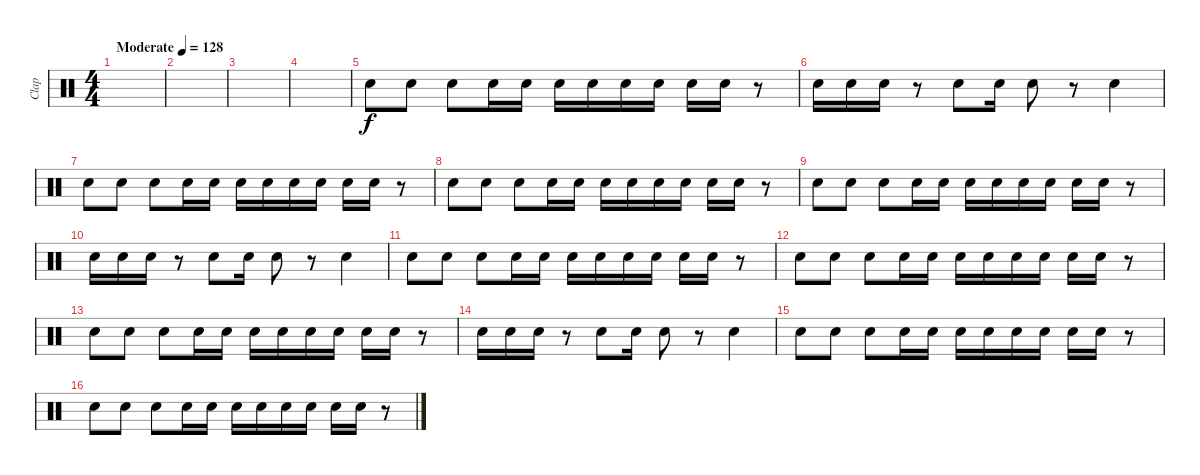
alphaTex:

\track ("Clap" "Clap") {instrument percussion}
\staff {score}
\articulation defaults
\ts (4 4)
\tempo (128 "Moderate")
\clef neutral
\ks c
|
|
|
|
"Hand Clap (hit)".8 "Hand Clap (hit)".8 "Hand Clap (hit)".8 "Hand Clap (hit)".16 "Hand Clap (hit)".16 "Hand Clap (hit)".16 "Hand Clap (hit)".16 "Hand Clap (hit)".16 "Hand Clap (hit)".16 "Hand Clap (hit)".16 "Hand Clap (hit)".16 r.8 |
"Hand Clap (hit)".16 "Hand Clap (hit)".16 "Hand Clap (hit)".16 r.8 "Hand Clap (hit)".8 "Hand Clap (hit)".16 "Hand Clap (hit)".8 r.8 "Hand Clap (hit)".4 |
"Hand Clap (hit)".8 "Hand Clap (hit)".8 "Hand Clap (hit)".8 "Hand Clap (hit)".16 "Hand Clap (hit)".16 "Hand Clap (hit)".16 "Hand Clap (hit)".16 "Hand Clap (hit)".16 "Hand Clap (hit)".16 "Hand Clap (hit)".16 "Hand Clap (hit)".16 r.8 |
"Hand Clap (hit)".8 "Hand Clap (hit)".8 "Hand Clap (hit)".8 "Hand Clap (hit)".16 "Hand Clap (hit)".16 "Hand Clap (hit)".16 "Hand Clap (hit)".16 "Hand Clap (hit)".16 "Hand Clap (hit)".16 "Hand Clap (hit)".16 "Hand Clap (hit)".16 r.8 |
"Hand Clap (hit)".8 "Hand Clap (hit)".8 "Hand Clap (hit)".8 "Hand Clap (hit)".16 "Hand Clap (hit)".16 "Hand Clap (hit)".16 "Hand Clap (hit)".16 "Hand Clap (hit)".16 "Hand Clap (hit)".16 "Hand Clap (hit)".16 "Hand Clap (hit)".16 r.8 |
"Hand Clap (hit)".16 "Hand Clap (hit)".16 "Hand Clap (hit)".16 r.8 "Hand Clap (hit)".8 "Hand Clap (hit)".16 "Hand Clap (hit)".8 r.8 "Hand Clap (hit)".4 |
"Hand Clap (hit)".8 "Hand Clap (hit)".8 "Hand Clap (hit)".8 "Hand Clap (hit)".16 "Hand Clap (hit)".16 "Hand Clap (hit)".16 "Hand Clap (hit)".16 "Hand Clap (hit)".16 "Hand Clap (hit)".16 "Hand Clap (hit)".16 "Hand Clap (hit)".16 r.8 |
"Hand Clap (hit)".8 "Hand Clap (hit)".8 "Hand Clap (hit)".8 "Hand Clap (hit)".16 "Hand Clap (hit)".16 "Hand Clap (hit)".16 "Hand Clap (hit)".16 "Hand Clap (hit)".16 "Hand Clap (hit)".16 "Hand Clap (hit)".16 "Hand Clap (hit)".16 r.8 |
"Hand Clap (hit)".8 "Hand Clap (hit)".8 "Hand Clap (hit)".8 "Hand Clap (hit)".16 "Hand Clap (hit)".16 "Hand Clap (hit)".16 "Hand Clap (hit)".16 "Hand Clap (hit)".16 "Hand Clap (hit)".16 "Hand Clap (hit)".16 "Hand Clap (hit)".16 r.8 |
"Hand Clap (hit)".16 "Hand Clap (hit)".16 "Hand Clap (hit)".16 r.8 "Hand Clap (hit)".8 "Hand Clap (hit)".16 "Hand Clap (hit)".8 r.8 "Hand Clap (hit)".4 |
"Hand Clap (hit)".8 "Hand Clap (hit)".8 "Hand Clap (hit)".8 "Hand Clap (hit)".16 "Hand Clap (hit)".16 "Hand Clap (hit)".16 "Hand Clap (hit)".16 "Hand Clap (hit)".16 "Hand Clap (hit)".16 "Hand Clap (hit)".16 "Hand Clap (hit)".16 r.8 |
"Hand Clap (hit)".8 "Hand Clap (hit)".8 "Hand Clap (hit)".8 "Hand Clap (hit)".16 "Hand Clap (hit)".16 "Hand Clap (hit)".16 "Hand Clap (hit)".16 "Hand Clap (hit)".16 "Hand Clap (hit)".16 "Hand Clap (hit)".16 "Hand Clap (hit)".16 r.8
